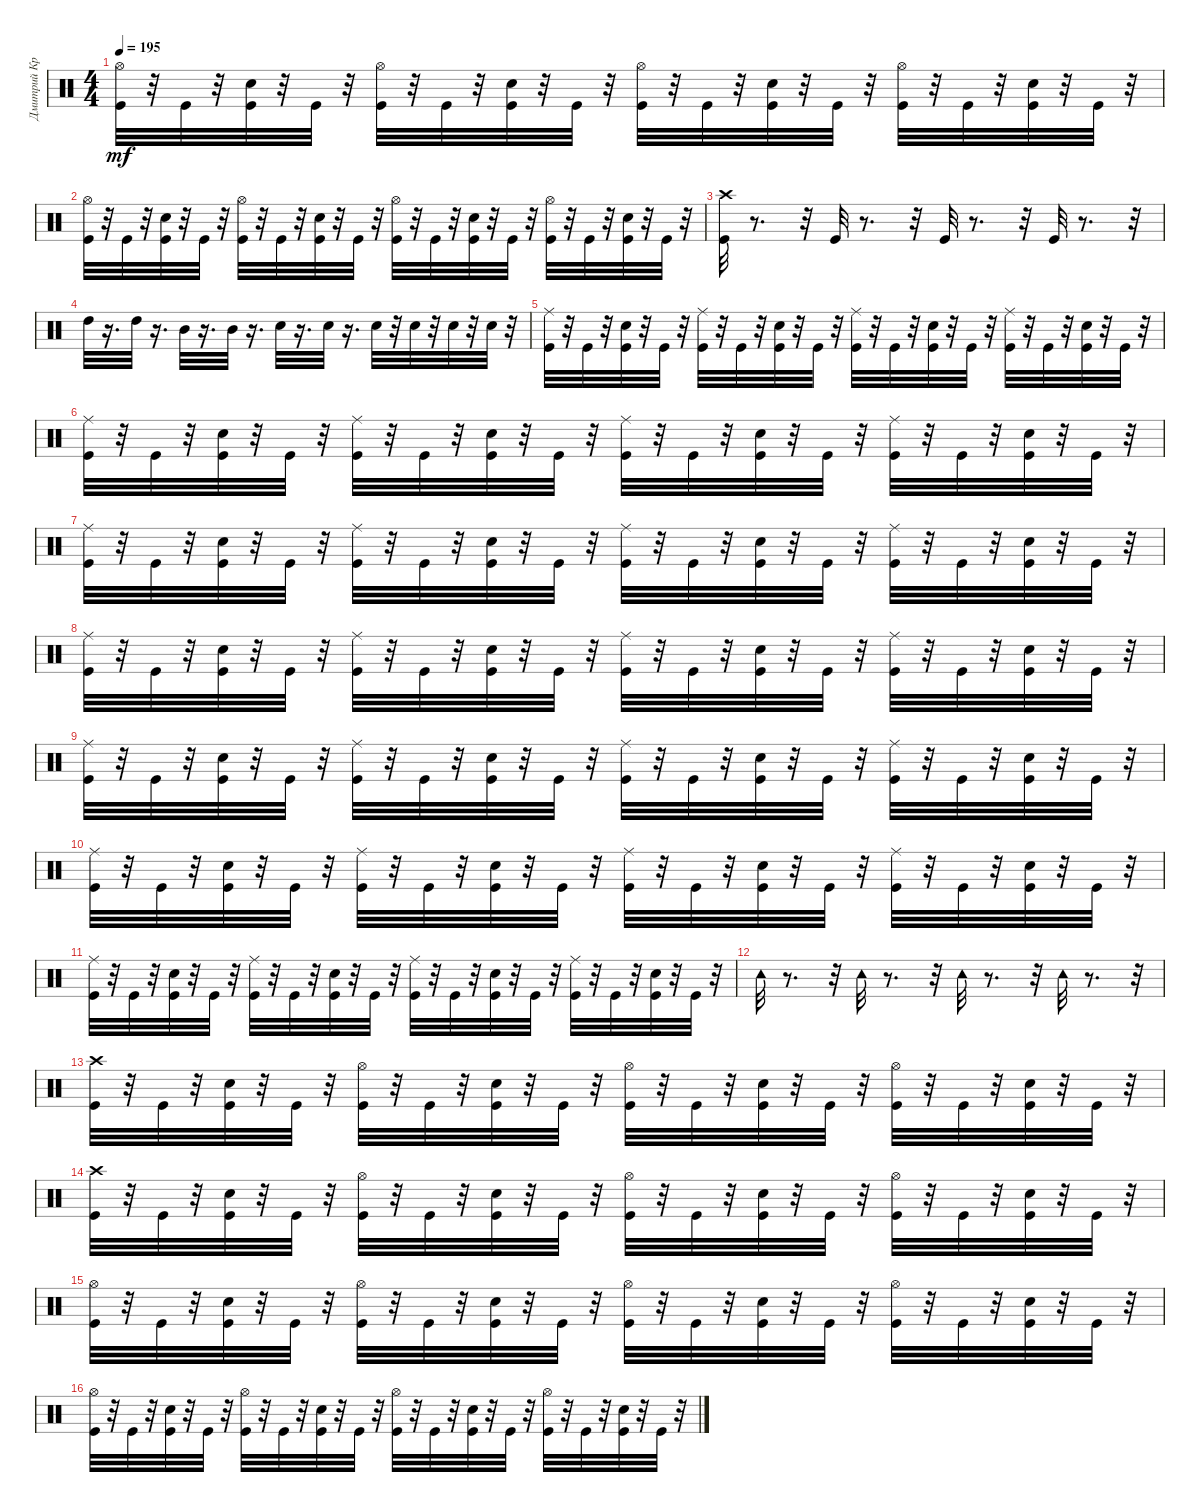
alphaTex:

\track ("Дмитрий Кривенков" "Дмитрий Кр") {instrument percussion}
\staff {score}
\articulation defaults
\ts (4 4)
\tempo 195
\clef neutral
\ks c
("Hi-Hat (open)" "Kick (hit)").32{dy mf} r.32 "Kick (hit)".32 r.32 ("Electric Snare (hit)" "Kick (hit)").32 r.32 "Kick (hit)".32 r.32 ("Hi-Hat (open)" "Kick (hit)").32 r.32 "Kick (hit)".32 r.32 ("Electric Snare (hit)" "Kick (hit)").32 r.32 "Kick (hit)".32 r.32 ("Hi-Hat (open)" "Kick (hit)").32 r.32 "Kick (hit)".32 r.32 ("Electric Snare (hit)" "Kick (hit)").32 r.32 "Kick (hit)".32 r.32 ("Hi-Hat (open)" "Kick (hit)").32 r.32 "Kick (hit)".32 r.32 ("Electric Snare (hit)" "Kick (hit)").32 r.32 "Kick (hit)".32 r.32 |
("Hi-Hat (open)" "Kick (hit)").32 r.32 "Kick (hit)".32 r.32 ("Electric Snare (hit)" "Kick (hit)").32 r.32 "Kick (hit)".32 r.32 ("Hi-Hat (open)" "Kick (hit)").32 r.32 "Kick (hit)".32 r.32 ("Electric Snare (hit)" "Kick (hit)").32 r.32 "Kick (hit)".32 r.32 ("Hi-Hat (open)" "Kick (hit)").32 r.32 "Kick (hit)".32 r.32 ("Electric Snare (hit)" "Kick (hit)").32 r.32 "Kick (hit)".32 r.32 ("Hi-Hat (open)" "Kick (hit)").32 r.32 "Kick (hit)".32 r.32 ("Electric Snare (hit)" "Kick (hit)").32 r.32 "Kick (hit)".32 r.32 |
("Crash high (hit)" "Kick (hit)").32 r.8{d} r.32 "Kick (hit)".32 r.8{d} r.32 "Kick (hit)".32 r.8{d} r.32 "Kick (hit)".32 r.8{d} r.32 |
"High Tom (hit)".32 r.16{d} "High Tom (hit)".32 r.16{d} "Mid Tom (hit)".32 r.16{d} "Mid Tom (hit)".32 r.16{d} "Electric Snare (hit)".32 r.16{d} "Electric Snare (hit)".32 r.16{d} "Electric Snare (hit)".32 r.32 "Electric Snare (hit)".32 r.32 "Electric Snare (hit)".32 r.32 "Electric Snare (hit)".32 r.32 |
("Kick (hit)" "Ride (middle)").32 r.32 "Kick (hit)".32 r.32 ("Kick (hit)" "Electric Snare (hit)").32 r.32 "Kick (hit)".32 r.32 ("Ride (middle)" "Kick (hit)").32 r.32 "Kick (hit)".32 r.32 ("Electric Snare (hit)" "Kick (hit)").32 r.32 "Kick (hit)".32 r.32 ("Kick (hit)" "Ride (middle)").32 r.32 "Kick (hit)".32 r.32 ("Kick (hit)" "Electric Snare (hit)").32 r.32 "Kick (hit)".32 r.32 ("Ride (middle)" "Kick (hit)").32 r.32 "Kick (hit)".32 r.32 ("Kick (hit)" "Electric Snare (hit)").32 r.32 "Kick (hit)".32 r.32 |
("Kick (hit)" "Ride (middle)").32 r.32 "Kick (hit)".32 r.32 ("Kick (hit)" "Electric Snare (hit)").32 r.32 "Kick (hit)".32 r.32 ("Ride (middle)" "Kick (hit)").32 r.32 "Kick (hit)".32 r.32 ("Electric Snare (hit)" "Kick (hit)").32 r.32 "Kick (hit)".32 r.32 ("Kick (hit)" "Ride (middle)").32 r.32 "Kick (hit)".32 r.32 ("Electric Snare (hit)" "Kick (hit)").32 r.32 "Kick (hit)".32 r.32 ("Kick (hit)" "Ride (middle)").32 r.32 "Kick (hit)".32 r.32 ("Kick (hit)" "Electric Snare (hit)").32 r.32 "Kick (hit)".32 r.32 |
("Kick (hit)" "Ride (middle)").32 r.32 "Kick (hit)".32 r.32 ("Kick (hit)" "Electric Snare (hit)").32 r.32 "Kick (hit)".32 r.32 ("Ride (middle)" "Kick (hit)").32 r.32 "Kick (hit)".32 r.32 ("Electric Snare (hit)" "Kick (hit)").32 r.32 "Kick (hit)".32 r.32 ("Kick (hit)" "Ride (middle)").32 r.32 "Kick (hit)".32 r.32 ("Electric Snare (hit)" "Kick (hit)").32 r.32 "Kick (hit)".32 r.32 ("Kick (hit)" "Ride (middle)").32 r.32 "Kick (hit)".32 r.32 ("Kick (hit)" "Electric Snare (hit)").32 r.32 "Kick (hit)".32 r.32 |
("Kick (hit)" "Ride (middle)").32 r.32 "Kick (hit)".32 r.32 ("Kick (hit)" "Electric Snare (hit)").32 r.32 "Kick (hit)".32 r.32 ("Ride (middle)" "Kick (hit)").32 r.32 "Kick (hit)".32 r.32 ("Electric Snare (hit)" "Kick (hit)").32 r.32 "Kick (hit)".32 r.32 ("Kick (hit)" "Ride (middle)").32 r.32 "Kick (hit)".32 r.32 ("Electric Snare (hit)" "Kick (hit)").32 r.32 "Kick (hit)".32 r.32 ("Kick (hit)" "Ride (middle)").32 r.32 "Kick (hit)".32 r.32 ("Kick (hit)" "Electric Snare (hit)").32 r.32 "Kick (hit)".32 r.32 |
("Kick (hit)" "Ride (middle)").32 r.32 "Kick (hit)".32 r.32 ("Kick (hit)" "Electric Snare (hit)").32 r.32 "Kick (hit)".32 r.32 ("Ride (middle)" "Kick (hit)").32 r.32 "Kick (hit)".32 r.32 ("Electric Snare (hit)" "Kick (hit)").32 r.32 "Kick (hit)".32 r.32 ("Kick (hit)" "Ride (middle)").32 r.32 "Kick (hit)".32 r.32 ("Electric Snare (hit)" "Kick (hit)").32 r.32 "Kick (hit)".32 r.32 ("Kick (hit)" "Ride (middle)").32 r.32 "Kick (hit)".32 r.32 ("Kick (hit)" "Electric Snare (hit)").32 r.32 "Kick (hit)".32 r.32 |
("Kick (hit)" "Ride (middle)").32 r.32 "Kick (hit)".32 r.32 ("Kick (hit)" "Electric Snare (hit)").32 r.32 "Kick (hit)".32 r.32 ("Ride (middle)" "Kick (hit)").32 r.32 "Kick (hit)".32 r.32 ("Electric Snare (hit)" "Kick (hit)").32 r.32 "Kick (hit)".32 r.32 ("Kick (hit)" "Ride (middle)").32 r.32 "Kick (hit)".32 r.32 ("Electric Snare (hit)" "Kick (hit)").32 r.32 "Kick (hit)".32 r.32 ("Kick (hit)" "Ride (middle)").32 r.32 "Kick (hit)".32 r.32 ("Kick (hit)" "Electric Snare (hit)").32 r.32 "Kick (hit)".32 r.32 |
("Kick (hit)" "Ride (middle)").32 r.32 "Kick (hit)".32 r.32 ("Electric Snare (hit)" "Kick (hit)").32 r.32 "Kick (hit)".32 r.32 ("Kick (hit)" "Ride (middle)").32 r.32 "Kick (hit)".32 r.32 ("Electric Snare (hit)" "Kick (hit)").32 r.32 "Kick (hit)".32 r.32 ("Ride (middle)" "Kick (hit)").32 r.32 "Kick (hit)".32 r.32 ("Kick (hit)" "Electric Snare (hit)").32 r.32 "Kick (hit)".32 r.32 ("Kick (hit)" "Ride (middle)").32 r.32 "Kick (hit)".32 r.32 ("Electric Snare (hit)" "Kick (hit)").32 r.32 "Kick (hit)".32 r.32 |
"Tambourine (hit)".32 r.8{d} r.32 "Tambourine (hit)".32 r.8{d} r.32 "Tambourine (hit)".32 r.8{d} r.32 "Tambourine (hit)".32 r.8{d} r.32 |
("Crash high (hit)" "Kick (hit)").32 r.32 "Kick (hit)".32 r.32 ("Electric Snare (hit)" "Kick (hit)").32 r.32 "Kick (hit)".32 r.32 ("Kick (hit)" "Hi-Hat (open)").32 r.32 "Kick (hit)".32 r.32 ("Electric Snare (hit)" "Kick (hit)").32 r.32 "Kick (hit)".32 r.32 ("Hi-Hat (open)" "Kick (hit)").32 r.32 "Kick (hit)".32 r.32 ("Electric Snare (hit)" "Kick (hit)").32 r.32 "Kick (hit)".32 r.32 ("Hi-Hat (open)" "Kick (hit)").32 r.32 "Kick (hit)".32 r.32 ("Electric Snare (hit)" "Kick (hit)").32 r.32 "Kick (hit)".32 r.32 |
("Crash high (hit)" "Kick (hit)").32 r.32 "Kick (hit)".32 r.32 ("Electric Snare (hit)" "Kick (hit)").32 r.32 "Kick (hit)".32 r.32 ("Kick (hit)" "Hi-Hat (open)").32 r.32 "Kick (hit)".32 r.32 ("Electric Snare (hit)" "Kick (hit)").32 r.32 "Kick (hit)".32 r.32 ("Hi-Hat (open)" "Kick (hit)").32 r.32 "Kick (hit)".32 r.32 ("Electric Snare (hit)" "Kick (hit)").32 r.32 "Kick (hit)".32 r.32 ("Hi-Hat (open)" "Kick (hit)").32 r.32 "Kick (hit)".32 r.32 ("Electric Snare (hit)" "Kick (hit)").32 r.32 "Kick (hit)".32 r.32 |
("Hi-Hat (open)" "Kick (hit)").32 r.32 "Kick (hit)".32 r.32 ("Electric Snare (hit)" "Kick (hit)").32 r.32 "Kick (hit)".32 r.32 ("Kick (hit)" "Hi-Hat (open)").32 r.32 "Kick (hit)".32 r.32 ("Electric Snare (hit)" "Kick (hit)").32 r.32 "Kick (hit)".32 r.32 ("Hi-Hat (open)" "Kick (hit)").32 r.32 "Kick (hit)".32 r.32 ("Electric Snare (hit)" "Kick (hit)").32 r.32 "Kick (hit)".32 r.32 ("Hi-Hat (open)" "Kick (hit)").32 r.32 "Kick (hit)".32 r.32 ("Electric Snare (hit)" "Kick (hit)").32 r.32 "Kick (hit)".32 r.32 |
("Hi-Hat (open)" "Kick (hit)").32 r.32 "Kick (hit)".32 r.32 ("Electric Snare (hit)" "Kick (hit)").32 r.32 "Kick (hit)".32 r.32 ("Kick (hit)" "Hi-Hat (open)").32 r.32 "Kick (hit)".32 r.32 ("Electric Snare (hit)" "Kick (hit)").32 r.32 "Kick (hit)".32 r.32 ("Hi-Hat (open)" "Kick (hit)").32 r.32 "Kick (hit)".32 r.32 ("Electric Snare (hit)" "Kick (hit)").32 r.32 "Kick (hit)".32 r.32 ("Hi-Hat (open)" "Kick (hit)").32 r.32 "Kick (hit)".32 r.32 ("Electric Snare (hit)" "Kick (hit)").32 r.32 "Kick (hit)".32 r.32
